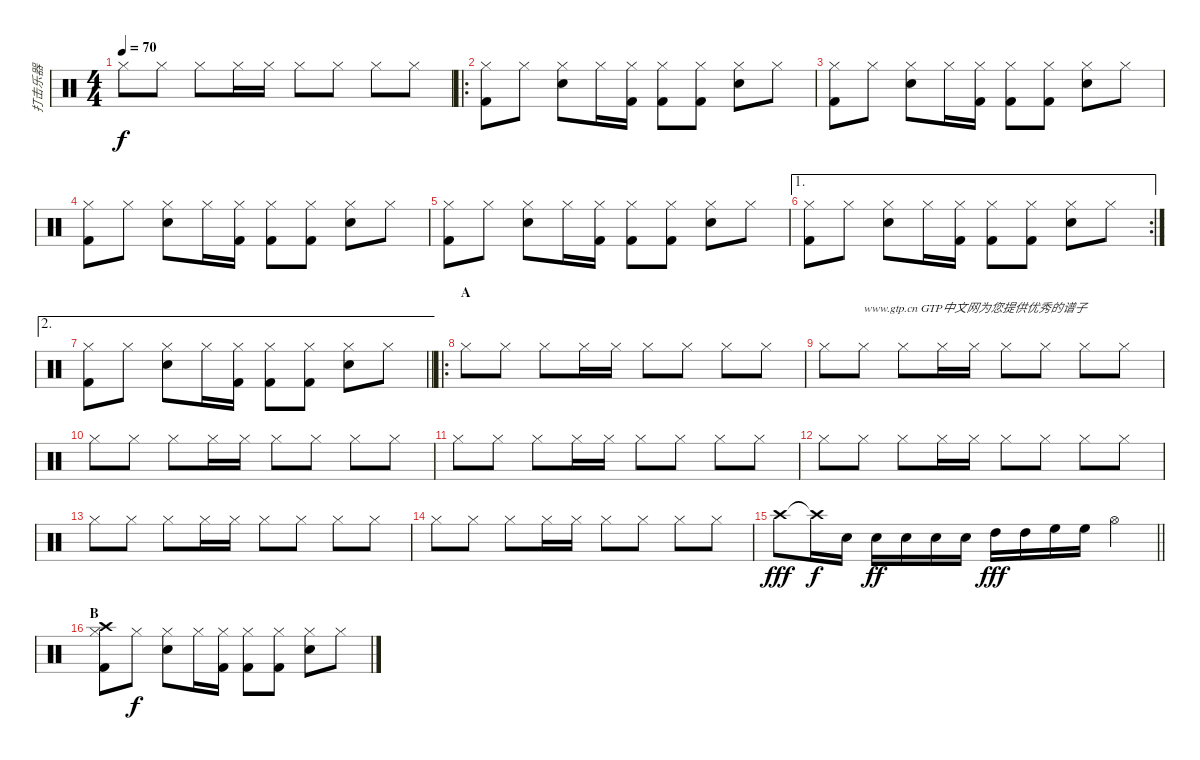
\track ("打击乐器" "打击乐器") {instrument percussion}
\staff {score}
\articulation defaults
\ts (4 4)
\tempo 70
\clef neutral
\ks c "Hi-Hat (closed)".8{dy f} "Hi-Hat (closed)".8 "Hi-Hat (closed)".8 "Hi-Hat (closed)".16 "Hi-Hat (closed)".16 "Hi-Hat (closed)".8 "Hi-Hat (closed)".8 "Hi-Hat (closed)".8 "Hi-Hat (closed)".8
|
\ro
("Hi-Hat (closed)" "Kick (hit) 2").8 "Hi-Hat (closed)".8 ("Hi-Hat (closed)" "Snare (hit) 2").8 "Hi-Hat (closed)".16 ("Hi-Hat (closed)" "Kick (hit) 2").16 ("Hi-Hat (closed)" "Kick (hit) 2").8 ("Hi-Hat (closed)" "Kick (hit) 2").8 ("Hi-Hat (closed)" "Snare (hit) 2").8 "Hi-Hat (closed)".8 |
("Hi-Hat (closed)" "Kick (hit) 2").8 "Hi-Hat (closed)".8 ("Hi-Hat (closed)" "Snare (hit) 2").8 "Hi-Hat (closed)".16 ("Hi-Hat (closed)" "Kick (hit) 2").16 ("Hi-Hat (closed)" "Kick (hit) 2").8 ("Hi-Hat (closed)" "Kick (hit) 2").8 ("Hi-Hat (closed)" "Snare (hit) 2").8 "Hi-Hat (closed)".8 |
("Hi-Hat (closed)" "Kick (hit) 2").8 "Hi-Hat (closed)".8 ("Hi-Hat (closed)" "Snare (hit) 2").8 "Hi-Hat (closed)".16 ("Hi-Hat (closed)" "Kick (hit) 2").16 ("Hi-Hat (closed)" "Kick (hit) 2").8 ("Hi-Hat (closed)" "Kick (hit) 2").8 ("Hi-Hat (closed)" "Snare (hit) 2").8 "Hi-Hat (closed)".8 |
("Hi-Hat (closed)" "Kick (hit) 2").8 "Hi-Hat (closed)".8 ("Hi-Hat (closed)" "Snare (hit) 2").8 "Hi-Hat (closed)".16 ("Hi-Hat (closed)" "Kick (hit) 2").16 ("Hi-Hat (closed)" "Kick (hit) 2").8 ("Hi-Hat (closed)" "Kick (hit) 2").8 ("Hi-Hat (closed)" "Snare (hit) 2").8 "Hi-Hat (closed)".8 |
\ae 1
\rc 2
("Hi-Hat (closed)" "Kick (hit) 2").8 "Hi-Hat (closed)".8 ("Hi-Hat (closed)" "Snare (hit) 2").8 "Hi-Hat (closed)".16 ("Hi-Hat (closed)" "Kick (hit) 2").16 ("Hi-Hat (closed)" "Kick (hit) 2").8 ("Hi-Hat (closed)" "Kick (hit) 2").8 ("Hi-Hat (closed)" "Snare (hit) 2").8 "Hi-Hat (closed)".8 |
\ae 2
\barLineRight lightlight
("Hi-Hat (closed)" "Kick (hit) 2").8 "Hi-Hat (closed)".8 ("Hi-Hat (closed)" "Snare (hit) 2").8 "Hi-Hat (closed)".16 ("Hi-Hat (closed)" "Kick (hit) 2").16 ("Hi-Hat (closed)" "Kick (hit) 2").8 ("Hi-Hat (closed)" "Kick (hit) 2").8 ("Hi-Hat (closed)" "Snare (hit) 2").8 "Hi-Hat (closed)".8 |
\ro
\section ("" "A")
"Hi-Hat (closed)".8 "Hi-Hat (closed)".8 "Hi-Hat (closed)".8 "Hi-Hat (closed)".16 "Hi-Hat (closed)".16 "Hi-Hat (closed)".8 "Hi-Hat (closed)".8 "Hi-Hat (closed)".8 "Hi-Hat (closed)".8 |
"Hi-Hat (closed)".8 "Hi-Hat (closed)".8{txt "www.gtp.cn GTP中文网为您提供优秀的谱子"} "Hi-Hat (closed)".8 "Hi-Hat (closed)".16 "Hi-Hat (closed)".16 "Hi-Hat (closed)".8 "Hi-Hat (closed)".8 "Hi-Hat (closed)".8 "Hi-Hat (closed)".8 |
"Hi-Hat (closed)".8 "Hi-Hat (closed)".8 "Hi-Hat (closed)".8 "Hi-Hat (closed)".16 "Hi-Hat (closed)".16 "Hi-Hat (closed)".8 "Hi-Hat (closed)".8 "Hi-Hat (closed)".8 "Hi-Hat (closed)".8 |
"Hi-Hat (closed)".8 "Hi-Hat (closed)".8 "Hi-Hat (closed)".8 "Hi-Hat (closed)".16 "Hi-Hat (closed)".16 "Hi-Hat (closed)".8 "Hi-Hat (closed)".8 "Hi-Hat (closed)".8 "Hi-Hat (closed)".8 |
"Hi-Hat (closed)".8 "Hi-Hat (closed)".8 "Hi-Hat (closed)".8 "Hi-Hat (closed)".16 "Hi-Hat (closed)".16 "Hi-Hat (closed)".8 "Hi-Hat (closed)".8 "Hi-Hat (closed)".8 "Hi-Hat (closed)".8 |
"Hi-Hat (closed)".8 "Hi-Hat (closed)".8 "Hi-Hat (closed)".8 "Hi-Hat (closed)".16 "Hi-Hat (closed)".16 "Hi-Hat (closed)".8 "Hi-Hat (closed)".8 "Hi-Hat (closed)".8 "Hi-Hat (closed)".8 |
"Hi-Hat (closed)".8 "Hi-Hat (closed)".8 "Hi-Hat (closed)".8 "Hi-Hat (closed)".16 "Hi-Hat (closed)".16 "Hi-Hat (closed)".8 "Hi-Hat (closed)".8 "Hi-Hat (closed)".8 "Hi-Hat (closed)".8 |
\barLineRight lightlight "Crash high (hit)".8{dy fff} "Crash high (hit)"{t}.16{dy f} "Snare (hit) 2".16 "Snare (hit) 2".16{dy ff} "Snare (hit) 2".16 "Snare (hit) 2".16 "Snare (hit) 2".16 "High Tom (hit)".16{dy fff} "High Tom (hit)".16 "High Floor Tom (hit)".16 "High Floor Tom (hit)".16 "Hi-Hat (open)".4
|
\section ("" "B")
("Hi-Hat (closed)" "Crash high (hit)" "Kick (hit) 2").8 "Hi-Hat (closed)".8{dy f} ("Hi-Hat (closed)" "Snare (hit) 2").8 "Hi-Hat (closed)".16 ("Hi-Hat (closed)" "Kick (hit) 2").16 ("Hi-Hat (closed)" "Kick (hit) 2").8 ("Hi-Hat (closed)" "Kick (hit) 2").8 ("Hi-Hat (closed)" "Snare (hit) 2").8 "Hi-Hat (closed)".8
